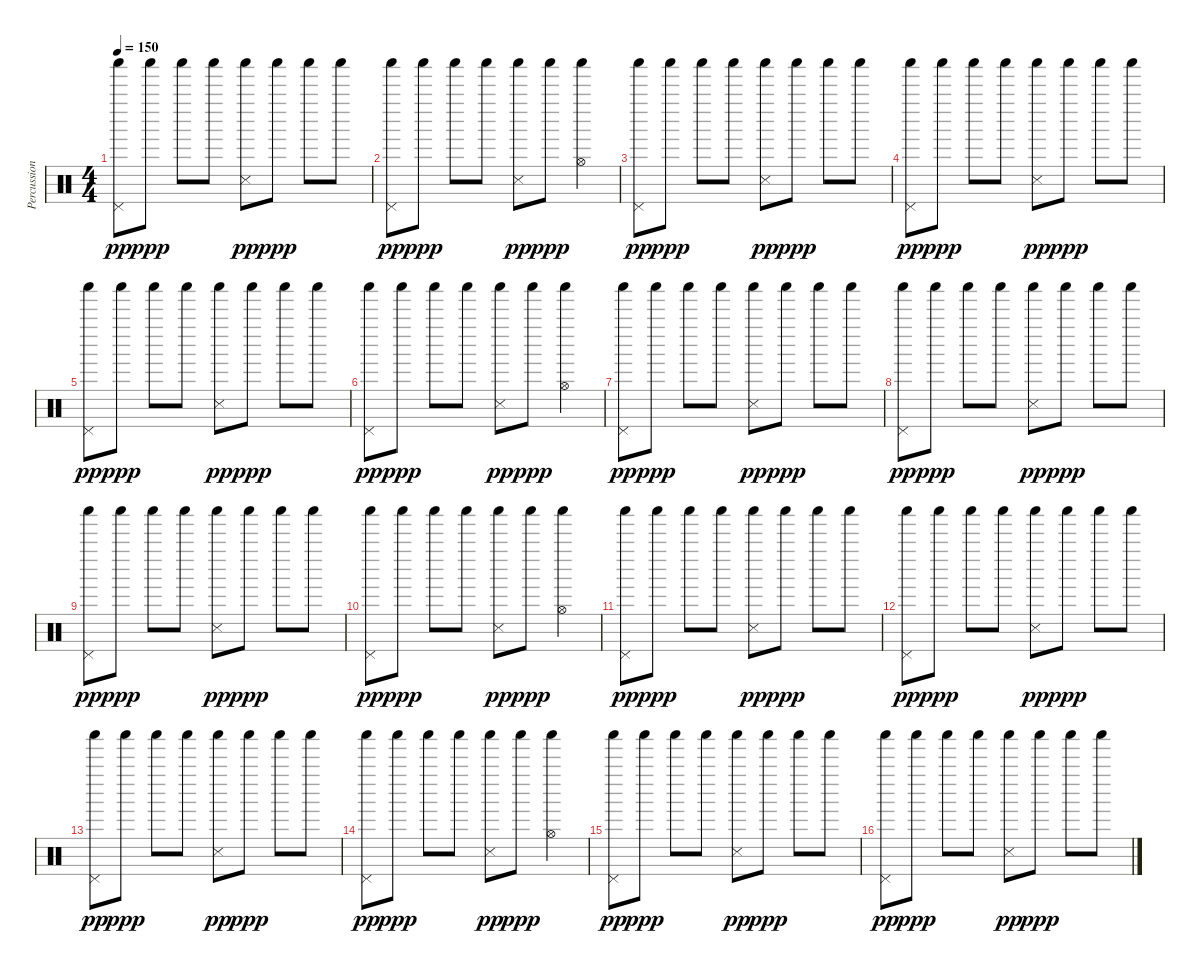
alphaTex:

\track ("Percussion" "Percussion") {instrument percussion}
\staff {score}
\articulation defaults
\ts (4 4)
\tempo 150
\clef neutral
\ks c
("Pedal Hi-Hat (hit)" "Shaker (hit)").8{dy pp} "Shaker (hit)".8{dy ppp} "Shaker (hit)".8 "Shaker (hit)".8 ("Snare (side stick) 3" "Shaker (hit)").8{dy pp} "Shaker (hit)".8{dy ppp} "Shaker (hit)".8 "Shaker (hit)".8 |
("Pedal Hi-Hat (hit)" "Shaker (hit)").8{dy pp} "Shaker (hit)".8{dy ppp} "Shaker (hit)".8 "Shaker (hit)".8 ("Snare (side stick) 3" "Shaker (hit)").8{dy pp} "Shaker (hit)".8{dy ppp} ("Hi-Hat (open)" "Shaker (hit)").4 |
("Pedal Hi-Hat (hit)" "Shaker (hit)").8{dy pp} "Shaker (hit)".8{dy ppp} "Shaker (hit)".8 "Shaker (hit)".8 ("Snare (side stick) 3" "Shaker (hit)").8{dy pp} "Shaker (hit)".8{dy ppp} "Shaker (hit)".8 "Shaker (hit)".8 |
("Pedal Hi-Hat (hit)" "Shaker (hit)").8{dy pp} "Shaker (hit)".8{dy ppp} "Shaker (hit)".8 "Shaker (hit)".8 ("Snare (side stick) 3" "Shaker (hit)").8{dy pp} "Shaker (hit)".8{dy ppp} "Shaker (hit)".8 "Shaker (hit)".8 |
("Pedal Hi-Hat (hit)" "Shaker (hit)").8{dy pp} "Shaker (hit)".8{dy ppp} "Shaker (hit)".8 "Shaker (hit)".8 ("Snare (side stick) 3" "Shaker (hit)").8{dy pp} "Shaker (hit)".8{dy ppp} "Shaker (hit)".8 "Shaker (hit)".8 |
("Pedal Hi-Hat (hit)" "Shaker (hit)").8{dy pp} "Shaker (hit)".8{dy ppp} "Shaker (hit)".8 "Shaker (hit)".8 ("Snare (side stick) 3" "Shaker (hit)").8{dy pp} "Shaker (hit)".8{dy ppp} ("Hi-Hat (open)" "Shaker (hit)").4 |
("Pedal Hi-Hat (hit)" "Shaker (hit)").8{dy pp} "Shaker (hit)".8{dy ppp} "Shaker (hit)".8 "Shaker (hit)".8 ("Snare (side stick) 3" "Shaker (hit)").8{dy pp} "Shaker (hit)".8{dy ppp} "Shaker (hit)".8 "Shaker (hit)".8 |
("Pedal Hi-Hat (hit)" "Shaker (hit)").8{dy pp} "Shaker (hit)".8{dy ppp} "Shaker (hit)".8 "Shaker (hit)".8 ("Snare (side stick) 3" "Shaker (hit)").8{dy pp} "Shaker (hit)".8{dy ppp} "Shaker (hit)".8 "Shaker (hit)".8 |
("Pedal Hi-Hat (hit)" "Shaker (hit)").8{dy pp} "Shaker (hit)".8{dy ppp} "Shaker (hit)".8 "Shaker (hit)".8 ("Snare (side stick) 3" "Shaker (hit)").8{dy pp} "Shaker (hit)".8{dy ppp} "Shaker (hit)".8 "Shaker (hit)".8 |
("Pedal Hi-Hat (hit)" "Shaker (hit)").8{dy pp} "Shaker (hit)".8{dy ppp} "Shaker (hit)".8 "Shaker (hit)".8 ("Snare (side stick) 3" "Shaker (hit)").8{dy pp} "Shaker (hit)".8{dy ppp} ("Hi-Hat (open)" "Shaker (hit)").4 |
("Pedal Hi-Hat (hit)" "Shaker (hit)").8{dy pp} "Shaker (hit)".8{dy ppp} "Shaker (hit)".8 "Shaker (hit)".8 ("Snare (side stick) 3" "Shaker (hit)").8{dy pp} "Shaker (hit)".8{dy ppp} "Shaker (hit)".8 "Shaker (hit)".8 |
("Pedal Hi-Hat (hit)" "Shaker (hit)").8{dy pp} "Shaker (hit)".8{dy ppp} "Shaker (hit)".8 "Shaker (hit)".8 ("Snare (side stick) 3" "Shaker (hit)").8{dy pp} "Shaker (hit)".8{dy ppp} "Shaker (hit)".8 "Shaker (hit)".8 |
("Pedal Hi-Hat (hit)" "Shaker (hit)").8{dy pp} "Shaker (hit)".8{dy ppp} "Shaker (hit)".8 "Shaker (hit)".8 ("Snare (side stick) 3" "Shaker (hit)").8{dy pp} "Shaker (hit)".8{dy ppp} "Shaker (hit)".8 "Shaker (hit)".8 |
("Pedal Hi-Hat (hit)" "Shaker (hit)").8{dy pp} "Shaker (hit)".8{dy ppp} "Shaker (hit)".8 "Shaker (hit)".8 ("Snare (side stick) 3" "Shaker (hit)").8{dy pp} "Shaker (hit)".8{dy ppp} ("Hi-Hat (open)" "Shaker (hit)").4 |
("Pedal Hi-Hat (hit)" "Shaker (hit)").8{dy pp} "Shaker (hit)".8{dy ppp} "Shaker (hit)".8 "Shaker (hit)".8 ("Snare (side stick) 3" "Shaker (hit)").8{dy pp} "Shaker (hit)".8{dy ppp} "Shaker (hit)".8 "Shaker (hit)".8 |
("Pedal Hi-Hat (hit)" "Shaker (hit)").8{dy pp} "Shaker (hit)".8{dy ppp} "Shaker (hit)".8 "Shaker (hit)".8 ("Snare (side stick) 3" "Shaker (hit)").8{dy pp} "Shaker (hit)".8{dy ppp} "Shaker (hit)".8 "Shaker (hit)".8
